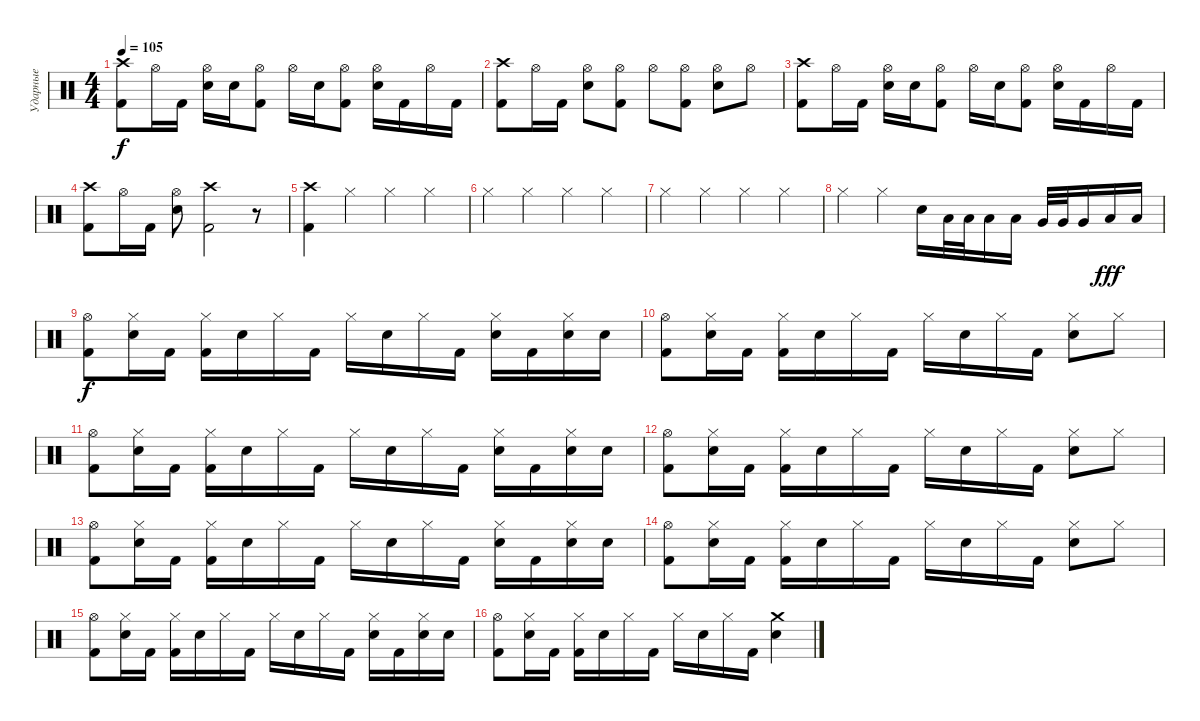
\track ("Ударные" "Ударные") {instrument percussion}
\staff {score}
\articulation defaults
\ts (4 4)
\tempo 105
\clef neutral
\ks c
("Crash high (hit)" "Kick (hit) 2").8{dy f} "Hi-Hat (open)".16 "Kick (hit) 2".16 ("Hi-Hat (open)" "Electric Snare (hit)").16 "Electric Snare (hit)".16 ("Hi-Hat (open)" "Kick (hit) 2").8 "Hi-Hat (open)".16 "Electric Snare (hit)".16 ("Hi-Hat (open)" "Kick (hit) 2").8 ("Hi-Hat (open)" "Electric Snare (hit)").16 "Kick (hit) 2".16 "Hi-Hat (open)".16 "Kick (hit) 2".16 |
("Crash high (hit)" "Kick (hit) 2").8 "Hi-Hat (open)".16 "Kick (hit) 2".16 ("Hi-Hat (open)" "Electric Snare (hit)").8 ("Hi-Hat (open)" "Kick (hit) 2").8 "Hi-Hat (open)".8 ("Hi-Hat (open)" "Kick (hit) 2").8 ("Hi-Hat (open)" "Electric Snare (hit)").8 "Hi-Hat (open)".8 |
("Crash high (hit)" "Kick (hit) 2").8 "Hi-Hat (open)".16 "Kick (hit) 2".16 ("Hi-Hat (open)" "Electric Snare (hit)").16 "Electric Snare (hit)".16 ("Hi-Hat (open)" "Kick (hit) 2").8 "Hi-Hat (open)".16 "Electric Snare (hit)".16 ("Hi-Hat (open)" "Kick (hit) 2").8 ("Hi-Hat (open)" "Electric Snare (hit)").16 "Kick (hit) 2".16 "Hi-Hat (open)".16 "Kick (hit) 2".16 |
("Crash high (hit)" "Kick (hit) 2").8 "Hi-Hat (open)".16 "Kick (hit) 2".16 ("Hi-Hat (open)" "Electric Snare (hit)").8 ("Crash high (hit)" "Kick (hit) 2").2 r.8 |
("Crash high (hit)" "Kick (hit) 2").4 "Hi-Hat (closed)".4 "Hi-Hat (closed)".4 "Hi-Hat (closed)".4 |
"Hi-Hat (closed)".4 "Hi-Hat (closed)".4 "Hi-Hat (closed)".4 "Hi-Hat (closed)".4 |
"Hi-Hat (closed)".4 "Hi-Hat (closed)".4 "Hi-Hat (closed)".4 "Hi-Hat (closed)".4 |
"Hi-Hat (closed)".4 "Hi-Hat (closed)".4 "Electric Snare (hit)".16 "Low Tom (hit)".32 "Low Tom (hit)".32 "Low Tom (hit)".16 "Low Tom (hit)".16 "Very Low Tom (hit)".32 "Very Low Tom (hit)".32 "Very Low Tom (hit)".16 "Low Floor Tom (hit)".16{dy fff} "Low Floor Tom (hit)".16 |
("Hi-Hat (open)" "Kick (hit) 2").8{dy f} ("Hi-Hat (closed)" "Electric Snare (hit)").16 "Kick (hit) 2".16 ("Hi-Hat (closed)" "Kick (hit) 2").16 "Electric Snare (hit)".16 "Hi-Hat (closed)".16 "Kick (hit) 2".16 "Hi-Hat (closed)".16 "Electric Snare (hit)".16 "Hi-Hat (closed)".16 "Kick (hit) 2".16 ("Hi-Hat (closed)" "Electric Snare (hit)").16 "Kick (hit) 2".16 ("Hi-Hat (closed)" "Electric Snare (hit)").16 "Electric Snare (hit)".16 |
("Hi-Hat (open)" "Kick (hit) 2").8 ("Hi-Hat (closed)" "Electric Snare (hit)").16 "Kick (hit) 2".16 ("Hi-Hat (closed)" "Kick (hit) 2").16 "Electric Snare (hit)".16 "Hi-Hat (closed)".16 "Kick (hit) 2".16 "Hi-Hat (closed)".16 "Electric Snare (hit)".16 "Hi-Hat (closed)".16 "Kick (hit) 2".16 ("Hi-Hat (closed)" "Electric Snare (hit)").8 "Hi-Hat (closed)".8 |
("Hi-Hat (open)" "Kick (hit) 2").8 ("Hi-Hat (closed)" "Electric Snare (hit)").16 "Kick (hit) 2".16 ("Hi-Hat (closed)" "Kick (hit) 2").16 "Electric Snare (hit)".16 "Hi-Hat (closed)".16 "Kick (hit) 2".16 "Hi-Hat (closed)".16 "Electric Snare (hit)".16 "Hi-Hat (closed)".16 "Kick (hit) 2".16 ("Hi-Hat (closed)" "Electric Snare (hit)").16 "Kick (hit) 2".16 ("Hi-Hat (closed)" "Electric Snare (hit)").16 "Electric Snare (hit)".16 |
("Hi-Hat (open)" "Kick (hit) 2").8 ("Hi-Hat (closed)" "Electric Snare (hit)").16 "Kick (hit) 2".16 ("Hi-Hat (closed)" "Kick (hit) 2").16 "Electric Snare (hit)".16 "Hi-Hat (closed)".16 "Kick (hit) 2".16 "Hi-Hat (closed)".16 "Electric Snare (hit)".16 "Hi-Hat (closed)".16 "Kick (hit) 2".16 ("Hi-Hat (closed)" "Electric Snare (hit)").8 "Hi-Hat (closed)".8 |
("Hi-Hat (open)" "Kick (hit) 2").8 ("Hi-Hat (closed)" "Electric Snare (hit)").16 "Kick (hit) 2".16 ("Hi-Hat (closed)" "Kick (hit) 2").16 "Electric Snare (hit)".16 "Hi-Hat (closed)".16 "Kick (hit) 2".16 "Hi-Hat (closed)".16 "Electric Snare (hit)".16 "Hi-Hat (closed)".16 "Kick (hit) 2".16 ("Hi-Hat (closed)" "Electric Snare (hit)").16 "Kick (hit) 2".16 ("Hi-Hat (closed)" "Electric Snare (hit)").16 "Electric Snare (hit)".16 |
("Hi-Hat (open)" "Kick (hit) 2").8 ("Hi-Hat (closed)" "Electric Snare (hit)").16 "Kick (hit) 2".16 ("Hi-Hat (closed)" "Kick (hit) 2").16 "Electric Snare (hit)".16 "Hi-Hat (closed)".16 "Kick (hit) 2".16 "Hi-Hat (closed)".16 "Electric Snare (hit)".16 "Hi-Hat (closed)".16 "Kick (hit) 2".16 ("Hi-Hat (closed)" "Electric Snare (hit)").8 "Hi-Hat (closed)".8 |
("Hi-Hat (open)" "Kick (hit) 2").8 ("Hi-Hat (closed)" "Electric Snare (hit)").16 "Kick (hit) 2".16 ("Hi-Hat (closed)" "Kick (hit) 2").16 "Electric Snare (hit)".16 "Hi-Hat (closed)".16 "Kick (hit) 2".16 "Hi-Hat (closed)".16 "Electric Snare (hit)".16 "Hi-Hat (closed)".16 "Kick (hit) 2".16 ("Hi-Hat (closed)" "Electric Snare (hit)").16 "Kick (hit) 2".16 ("Hi-Hat (closed)" "Electric Snare (hit)").16 "Electric Snare (hit)".16 |
("Hi-Hat (open)" "Kick (hit) 2").8 ("Hi-Hat (closed)" "Electric Snare (hit)").16 "Kick (hit) 2".16 ("Hi-Hat (closed)" "Kick (hit) 2").16 "Electric Snare (hit)".16 "Hi-Hat (closed)".16 "Kick (hit) 2".16 "Hi-Hat (closed)".16 "Electric Snare (hit)".16 "Hi-Hat (closed)".16 "Kick (hit) 2".16 ("Crash medium (hit)" "Electric Snare (hit)").4
